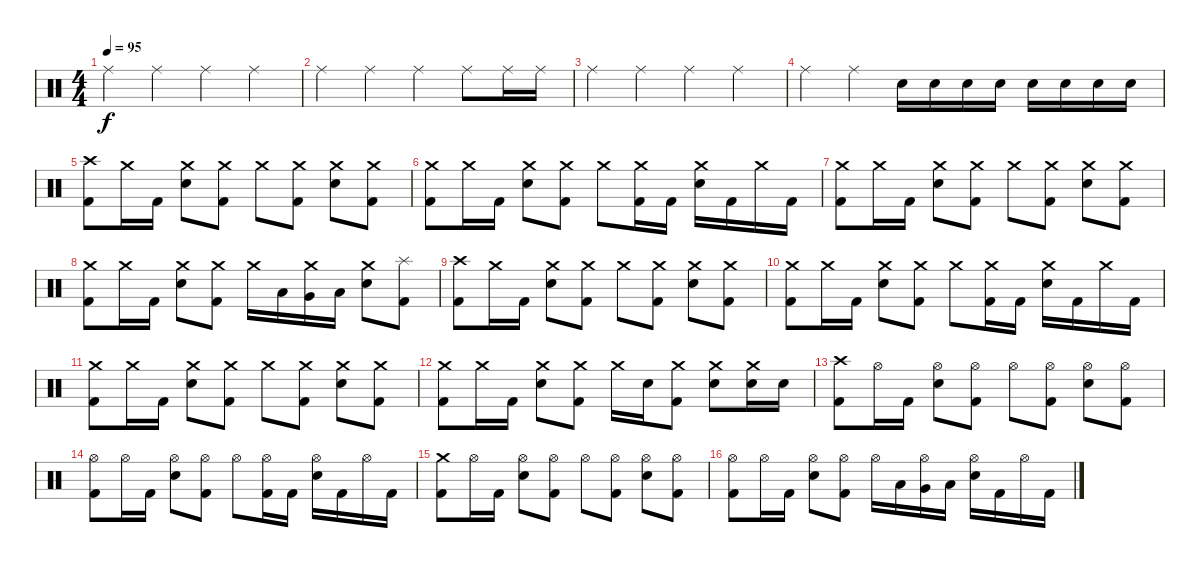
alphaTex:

\track "" {instrument percussion}
\staff {score}
\articulation defaults
\ts (4 4)
\tempo 95
\clef neutral
\ks c "Ride (middle)".4{dy f} "Ride (middle)".4 "Ride (middle)".4 "Ride (middle)".4
|
"Ride (middle)".4 "Ride (middle)".4 "Ride (middle)".4 "Ride (middle)".8 "Ride (middle)".16 "Ride (middle)".16 |
"Ride (middle)".4 "Ride (middle)".4 "Ride (middle)".4 "Ride (middle)".4 |
"Ride (middle)".4 "Ride (middle)".4 "Electric Snare (hit)".16 "Electric Snare (hit)".16 "Electric Snare (hit)".16 "Electric Snare (hit)".16 "Electric Snare (hit)".16 "Electric Snare (hit)".16 "Electric Snare (hit)".16 "Electric Snare (hit)".16 |
("Crash high (hit)" "Kick (hit) 2").8 "Crash medium (hit)".16 "Kick (hit) 2".16 ("Crash medium (hit)" "Electric Snare (hit)").8 ("Crash medium (hit)" "Kick (hit) 2").8 "Crash medium (hit)".8 ("Crash medium (hit)" "Kick (hit) 2").8 ("Crash medium (hit)" "Electric Snare (hit)").8 ("Crash medium (hit)" "Kick (hit) 2").8 |
("Crash medium (hit)" "Kick (hit) 2").8 "Crash medium (hit)".16 "Kick (hit) 2".16 ("Crash medium (hit)" "Electric Snare (hit)").8 ("Crash medium (hit)" "Kick (hit) 2").8 "Crash medium (hit)".8 ("Crash medium (hit)" "Kick (hit) 2").16 "Kick (hit) 2".16 ("Crash medium (hit)" "Electric Snare (hit)").16 "Kick (hit) 2".16 "Crash medium (hit)".16 "Kick (hit) 2".16 |
("Crash medium (hit)" "Kick (hit) 2").8 "Crash medium (hit)".16 "Kick (hit) 2".16 ("Crash medium (hit)" "Electric Snare (hit)").8 ("Crash medium (hit)" "Kick (hit) 2").8 "Crash medium (hit)".8 ("Crash medium (hit)" "Kick (hit) 2").8 ("Crash medium (hit)" "Electric Snare (hit)").8 ("Crash medium (hit)" "Kick (hit) 2").8 |
("Crash medium (hit)" "Kick (hit) 2").8 "Crash medium (hit)".16 "Kick (hit) 2".16 ("Crash medium (hit)" "Electric Snare (hit)").8 ("Crash medium (hit)" "Kick (hit) 2").8 "Crash medium (hit)".16 "Low Tom (hit)".16 ("Crash medium (hit)" "Very Low Tom (hit)").16 "Low Floor Tom (hit)".16 ("Crash medium (hit)" "Electric Snare (hit)").8 ("Splash (hit)" "Kick (hit) 2").8 |
("Crash high (hit)" "Kick (hit) 2").8 "Crash medium (hit)".16 "Kick (hit) 2".16 ("Crash medium (hit)" "Electric Snare (hit)").8 ("Crash medium (hit)" "Kick (hit) 2").8 "Crash medium (hit)".8 ("Crash medium (hit)" "Kick (hit) 2").8 ("Crash medium (hit)" "Electric Snare (hit)").8 ("Crash medium (hit)" "Kick (hit) 2").8 |
("Crash medium (hit)" "Kick (hit) 2").8 "Crash medium (hit)".16 "Kick (hit) 2".16 ("Crash medium (hit)" "Electric Snare (hit)").8 ("Crash medium (hit)" "Kick (hit) 2").8 "Crash medium (hit)".8 ("Crash medium (hit)" "Kick (hit) 2").16 "Kick (hit) 2".16 ("Crash medium (hit)" "Electric Snare (hit)").16 "Kick (hit) 2".16 "Crash medium (hit)".16 "Kick (hit) 2".16 |
("Crash medium (hit)" "Kick (hit) 2").8 "Crash medium (hit)".16 "Kick (hit) 2".16 ("Crash medium (hit)" "Electric Snare (hit)").8 ("Crash medium (hit)" "Kick (hit) 2").8 "Crash medium (hit)".8 ("Crash medium (hit)" "Kick (hit) 2").8 ("Crash medium (hit)" "Electric Snare (hit)").8 ("Crash medium (hit)" "Kick (hit) 2").8 |
("Crash medium (hit)" "Kick (hit) 2").8 "Crash medium (hit)".16 "Kick (hit) 2".16 ("Crash medium (hit)" "Electric Snare (hit)").8 ("Crash medium (hit)" "Kick (hit) 2").8 "Crash medium (hit)".16 "Electric Snare (hit)".16 ("Crash medium (hit)" "Kick (hit) 2").8 ("Crash medium (hit)" "Electric Snare (hit)").8 ("Crash medium (hit)" "Electric Snare (hit)").16 "Electric Snare (hit)".16 |
("Crash high (hit)" "Kick (hit) 2").8 "Hi-Hat (open)".16 "Kick (hit) 2".16 ("Hi-Hat (open)" "Electric Snare (hit)").8 ("Hi-Hat (open)" "Kick (hit) 2").8 "Hi-Hat (open)".8 ("Hi-Hat (open)" "Kick (hit) 2").8 ("Hi-Hat (open)" "Electric Snare (hit)").8 ("Hi-Hat (open)" "Kick (hit) 2").8 |
("Hi-Hat (open)" "Kick (hit) 2").8 "Hi-Hat (open)".16 "Kick (hit) 2".16 ("Hi-Hat (open)" "Electric Snare (hit)").8 ("Hi-Hat (open)" "Kick (hit) 2").8 "Hi-Hat (open)".8 ("Hi-Hat (open)" "Kick (hit) 2").16 "Kick (hit) 2".16 ("Hi-Hat (open)" "Electric Snare (hit)").16 "Kick (hit) 2".16 "Hi-Hat (open)".16 "Kick (hit) 2".16 |
("Crash medium (hit)" "Kick (hit) 2").8 "Hi-Hat (open)".16 "Kick (hit) 2".16 ("Hi-Hat (open)" "Electric Snare (hit)").8 ("Hi-Hat (open)" "Kick (hit) 2").8 "Hi-Hat (open)".8 ("Hi-Hat (open)" "Kick (hit) 2").8 ("Hi-Hat (open)" "Electric Snare (hit)").8 ("Hi-Hat (open)" "Kick (hit) 2").8 |
("Hi-Hat (open)" "Kick (hit) 2").8 "Hi-Hat (open)".16 "Kick (hit) 2".16 ("Hi-Hat (open)" "Electric Snare (hit)").8 ("Hi-Hat (open)" "Kick (hit) 2").8 "Hi-Hat (open)".16 "Low Tom (hit)".16 ("Hi-Hat (open)" "Very Low Tom (hit)").16 "Low Floor Tom (hit)".16 ("Hi-Hat (open)" "Electric Snare (hit)").16 "Kick (hit) 2".16 "Hi-Hat (open)".16 "Kick (hit) 2".16
